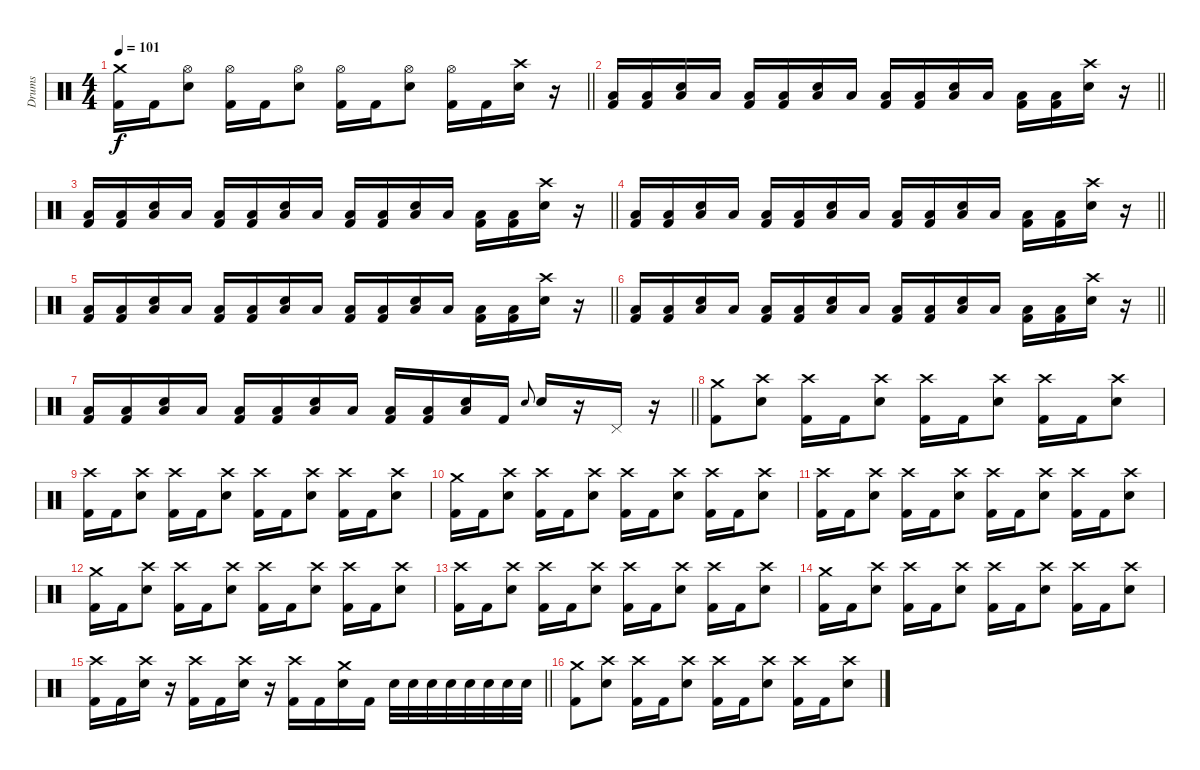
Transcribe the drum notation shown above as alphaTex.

\track ("Drums" "Drums") {instrument percussion}
\staff {score}
\articulation defaults
\ts (4 4)
\tempo 101
\clef neutral
\barLineRight lightlight
\ks c
("Crash medium (hit)" "Kick (hit) 2").16{dy f} "Kick (hit) 2".16 ("Hi-Hat (open)" "Electric Snare (hit)").8 ("Hi-Hat (open)" "Kick (hit) 2").16 "Kick (hit) 2".16 ("Hi-Hat (open)" "Electric Snare (hit)").8 ("Hi-Hat (open)" "Kick (hit) 2").16 "Kick (hit) 2".16 ("Hi-Hat (open)" "Electric Snare (hit)").8 ("Hi-Hat (open)" "Kick (hit) 2").16 "Kick (hit) 2".16 ("Crash high (hit)" "Electric Snare (hit)").16 r.16 |
\barLineRight lightlight
("Low Floor Tom (hit)" "Kick (hit) 2").16 ("Low Floor Tom (hit)" "Kick (hit) 2").16 ("Electric Snare (hit)" "Low Floor Tom (hit)").16 "Low Floor Tom (hit)".16 ("Low Floor Tom (hit)" "Kick (hit) 2").16 ("Low Floor Tom (hit)" "Kick (hit) 2").16 ("Electric Snare (hit)" "Low Floor Tom (hit)").16 "Low Floor Tom (hit)".16 ("Low Floor Tom (hit)" "Kick (hit) 2").16 ("Low Floor Tom (hit)" "Kick (hit) 2").16 ("Electric Snare (hit)" "Low Floor Tom (hit)").16 "Low Floor Tom (hit)".16 ("Low Floor Tom (hit)" "Kick (hit) 2").16 ("Low Floor Tom (hit)" "Kick (hit) 2").16 ("Crash high (hit)" "Electric Snare (hit)").16 r.16 |
\barLineRight lightlight
("Low Floor Tom (hit)" "Kick (hit) 2").16 ("Low Floor Tom (hit)" "Kick (hit) 2").16 ("Electric Snare (hit)" "Low Floor Tom (hit)").16 "Low Floor Tom (hit)".16 ("Low Floor Tom (hit)" "Kick (hit) 2").16 ("Low Floor Tom (hit)" "Kick (hit) 2").16 ("Electric Snare (hit)" "Low Floor Tom (hit)").16 "Low Floor Tom (hit)".16 ("Low Floor Tom (hit)" "Kick (hit) 2").16 ("Low Floor Tom (hit)" "Kick (hit) 2").16 ("Electric Snare (hit)" "Low Floor Tom (hit)").16 "Low Floor Tom (hit)".16 ("Low Floor Tom (hit)" "Kick (hit) 2").16 ("Low Floor Tom (hit)" "Kick (hit) 2").16 ("Crash high (hit)" "Electric Snare (hit)").16 r.16 |
\barLineRight lightlight
("Low Floor Tom (hit)" "Kick (hit) 2").16 ("Low Floor Tom (hit)" "Kick (hit) 2").16 ("Electric Snare (hit)" "Low Floor Tom (hit)").16 "Low Floor Tom (hit)".16 ("Low Floor Tom (hit)" "Kick (hit) 2").16 ("Low Floor Tom (hit)" "Kick (hit) 2").16 ("Electric Snare (hit)" "Low Floor Tom (hit)").16 "Low Floor Tom (hit)".16 ("Low Floor Tom (hit)" "Kick (hit) 2").16 ("Low Floor Tom (hit)" "Kick (hit) 2").16 ("Electric Snare (hit)" "Low Floor Tom (hit)").16 "Low Floor Tom (hit)".16 ("Low Floor Tom (hit)" "Kick (hit) 2").16 ("Low Floor Tom (hit)" "Kick (hit) 2").16 ("Crash high (hit)" "Electric Snare (hit)").16 r.16 |
\barLineRight lightlight
("Low Floor Tom (hit)" "Kick (hit) 2").16 ("Low Floor Tom (hit)" "Kick (hit) 2").16 ("Electric Snare (hit)" "Low Floor Tom (hit)").16 "Low Floor Tom (hit)".16 ("Low Floor Tom (hit)" "Kick (hit) 2").16 ("Low Floor Tom (hit)" "Kick (hit) 2").16 ("Electric Snare (hit)" "Low Floor Tom (hit)").16 "Low Floor Tom (hit)".16 ("Low Floor Tom (hit)" "Kick (hit) 2").16 ("Low Floor Tom (hit)" "Kick (hit) 2").16 ("Electric Snare (hit)" "Low Floor Tom (hit)").16 "Low Floor Tom (hit)".16 ("Low Floor Tom (hit)" "Kick (hit) 2").16 ("Low Floor Tom (hit)" "Kick (hit) 2").16 ("Crash high (hit)" "Electric Snare (hit)").16 r.16 |
\barLineRight lightlight
("Low Floor Tom (hit)" "Kick (hit) 2").16 ("Low Floor Tom (hit)" "Kick (hit) 2").16 ("Electric Snare (hit)" "Low Floor Tom (hit)").16 "Low Floor Tom (hit)".16 ("Low Floor Tom (hit)" "Kick (hit) 2").16 ("Low Floor Tom (hit)" "Kick (hit) 2").16 ("Electric Snare (hit)" "Low Floor Tom (hit)").16 "Low Floor Tom (hit)".16 ("Low Floor Tom (hit)" "Kick (hit) 2").16 ("Low Floor Tom (hit)" "Kick (hit) 2").16 ("Electric Snare (hit)" "Low Floor Tom (hit)").16 "Low Floor Tom (hit)".16 ("Low Floor Tom (hit)" "Kick (hit) 2").16 ("Low Floor Tom (hit)" "Kick (hit) 2").16 ("Crash high (hit)" "Electric Snare (hit)").16 r.16 |
\barLineRight lightlight
("Low Floor Tom (hit)" "Kick (hit) 2").16 ("Low Floor Tom (hit)" "Kick (hit) 2").16 ("Electric Snare (hit)" "Low Floor Tom (hit)").16 "Low Floor Tom (hit)".16 ("Low Floor Tom (hit)" "Kick (hit) 2").16 ("Low Floor Tom (hit)" "Kick (hit) 2").16 ("Electric Snare (hit)" "Low Floor Tom (hit)").16 "Low Floor Tom (hit)".16 ("Low Floor Tom (hit)" "Kick (hit) 2").16 ("Low Floor Tom (hit)" "Kick (hit) 2").16 ("Electric Snare (hit)" "Low Floor Tom (hit)").16 "Kick (hit) 2".16 "Electric Snare (hit)".8{gr onbeat} "Electric Snare (hit)".16 r.16 "Pedal Hi-Hat (hit)".16 r.16 |
("Crash medium (hit)" "Kick (hit) 2").8 ("Crash high (hit)" "Electric Snare (hit)").8 ("Crash high (hit)" "Kick (hit) 2").16 "Kick (hit) 2".16 ("Crash high (hit)" "Electric Snare (hit)").8 ("Crash high (hit)" "Kick (hit) 2").16 "Kick (hit) 2".16 ("Crash high (hit)" "Electric Snare (hit)").8 ("Crash high (hit)" "Kick (hit) 2").16 "Kick (hit) 2".16 ("Crash high (hit)" "Electric Snare (hit)").8 |
("Crash high (hit)" "Kick (hit) 2").16 "Kick (hit) 2".16 ("Crash high (hit)" "Electric Snare (hit)").8 ("Crash high (hit)" "Kick (hit) 2").16 "Kick (hit) 2".16 ("Crash high (hit)" "Electric Snare (hit)").8 ("Crash high (hit)" "Kick (hit) 2").16 "Kick (hit) 2".16 ("Crash high (hit)" "Electric Snare (hit)").8 ("Crash high (hit)" "Kick (hit) 2").16 "Kick (hit) 2".16 ("Crash high (hit)" "Electric Snare (hit)").8 |
("Crash medium (hit)" "Kick (hit) 2").16 "Kick (hit) 2".16 ("Crash high (hit)" "Electric Snare (hit)").8 ("Crash high (hit)" "Kick (hit) 2").16 "Kick (hit) 2".16 ("Crash high (hit)" "Electric Snare (hit)").8 ("Crash high (hit)" "Kick (hit) 2").16 "Kick (hit) 2".16 ("Crash high (hit)" "Electric Snare (hit)").8 ("Crash high (hit)" "Kick (hit) 2").16 "Kick (hit) 2".16 ("Crash high (hit)" "Electric Snare (hit)").8 |
("Crash high (hit)" "Kick (hit) 2").16 "Kick (hit) 2".16 ("Crash high (hit)" "Electric Snare (hit)").8 ("Crash high (hit)" "Kick (hit) 2").16 "Kick (hit) 2".16 ("Crash high (hit)" "Electric Snare (hit)").8 ("Crash high (hit)" "Kick (hit) 2").16 "Kick (hit) 2".16 ("Crash high (hit)" "Electric Snare (hit)").8 ("Crash high (hit)" "Kick (hit) 2").16 "Kick (hit) 2".16 ("Crash high (hit)" "Electric Snare (hit)").8 |
("Crash medium (hit)" "Kick (hit) 2").16 "Kick (hit) 2".16 ("Crash high (hit)" "Electric Snare (hit)").8 ("Crash high (hit)" "Kick (hit) 2").16 "Kick (hit) 2".16 ("Crash high (hit)" "Electric Snare (hit)").8 ("Crash high (hit)" "Kick (hit) 2").16 "Kick (hit) 2".16 ("Crash high (hit)" "Electric Snare (hit)").8 ("Crash high (hit)" "Kick (hit) 2").16 "Kick (hit) 2".16 ("Crash high (hit)" "Electric Snare (hit)").8 |
("Crash high (hit)" "Kick (hit) 2").16 "Kick (hit) 2".16 ("Crash high (hit)" "Electric Snare (hit)").8 ("Crash high (hit)" "Kick (hit) 2").16 "Kick (hit) 2".16 ("Crash high (hit)" "Electric Snare (hit)").8 ("Crash high (hit)" "Kick (hit) 2").16 "Kick (hit) 2".16 ("Crash high (hit)" "Electric Snare (hit)").8 ("Crash high (hit)" "Kick (hit) 2").16 "Kick (hit) 2".16 ("Crash high (hit)" "Electric Snare (hit)").8 |
("Crash medium (hit)" "Kick (hit) 2").16 "Kick (hit) 2".16 ("Crash high (hit)" "Electric Snare (hit)").8 ("Crash high (hit)" "Kick (hit) 2").16 "Kick (hit) 2".16 ("Crash high (hit)" "Electric Snare (hit)").8 ("Crash high (hit)" "Kick (hit) 2").16 "Kick (hit) 2".16 ("Crash high (hit)" "Electric Snare (hit)").8 ("Crash high (hit)" "Kick (hit) 2").16 "Kick (hit) 2".16 ("Crash high (hit)" "Electric Snare (hit)").8 |
\barLineRight lightlight
("Crash high (hit)" "Kick (hit) 2").16 "Kick (hit) 2".16 ("Crash high (hit)" "Electric Snare (hit)").16 r.16 ("Crash high (hit)" "Kick (hit) 2").16 "Kick (hit) 2".16 ("Crash high (hit)" "Electric Snare (hit)").16 r.16 ("Crash high (hit)" "Kick (hit) 2").16 "Kick (hit) 2".16 ("Crash medium (hit)" "Electric Snare (hit)").16 "Kick (hit) 2".16 "Electric Snare (hit)".32 "Electric Snare (hit)".32 "Electric Snare (hit)".32 "Electric Snare (hit)".32 "Electric Snare (hit)".32 "Electric Snare (hit)".32 "Electric Snare (hit)".32 "Electric Snare (hit)".32 |
("Crash medium (hit)" "Kick (hit) 2").8 ("Crash high (hit)" "Electric Snare (hit)").8 ("Crash high (hit)" "Kick (hit) 2").16 "Kick (hit) 2".16 ("Crash high (hit)" "Electric Snare (hit)").8 ("Crash high (hit)" "Kick (hit) 2").16 "Kick (hit) 2".16 ("Crash high (hit)" "Electric Snare (hit)").8 ("Crash high (hit)" "Kick (hit) 2").16 "Kick (hit) 2".16 ("Crash high (hit)" "Electric Snare (hit)").8
